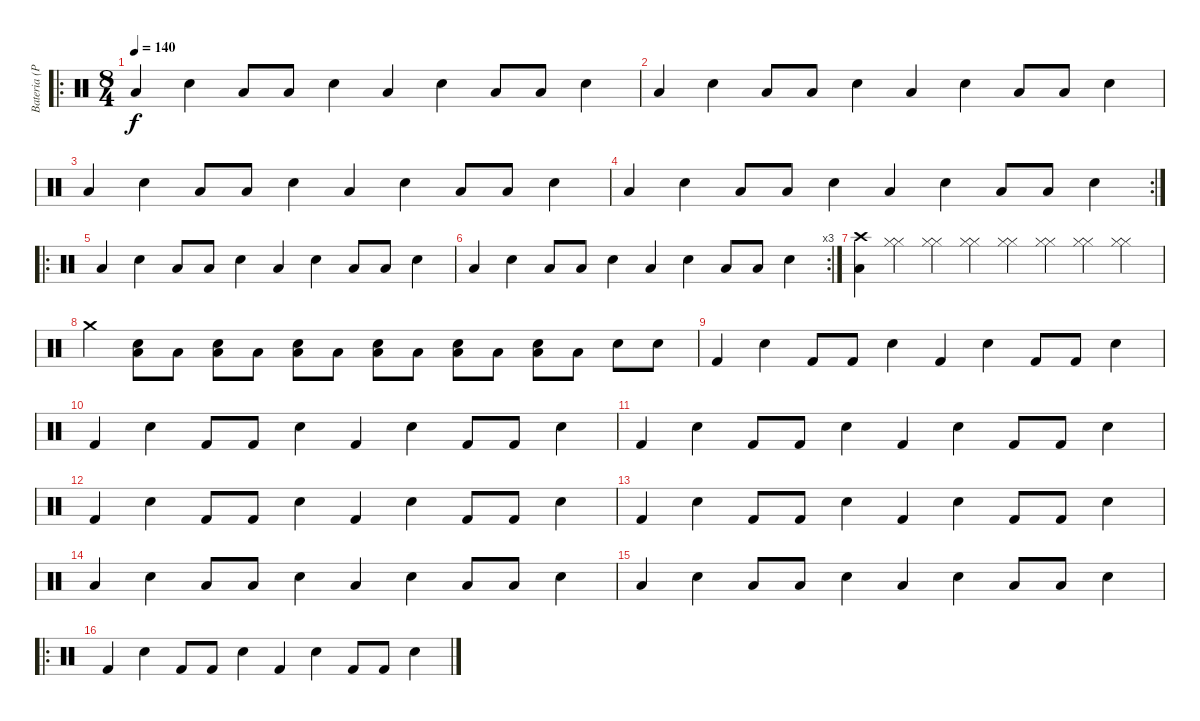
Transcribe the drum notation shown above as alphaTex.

\track ("Bateria (Pelado)" "Bateria (P") {instrument percussion}
\staff {score}
\articulation defaults
\ro
\ts (8 4)
\tempo 140
\clef neutral
\ks c "Low Floor Tom (hit)".4{dy f} "Snare (hit) 2".4 "Low Floor Tom (hit)".8 "Low Floor Tom (hit)".8 "Snare (hit) 2".4 "Low Floor Tom (hit)".4 "Snare (hit) 2".4 "Low Floor Tom (hit)".8 "Low Floor Tom (hit)".8 "Snare (hit) 2".4
|
"Low Floor Tom (hit)".4 "Snare (hit) 2".4 "Low Floor Tom (hit)".8 "Low Floor Tom (hit)".8 "Snare (hit) 2".4 "Low Floor Tom (hit)".4 "Snare (hit) 2".4 "Low Floor Tom (hit)".8 "Low Floor Tom (hit)".8 "Snare (hit) 2".4 |
"Low Floor Tom (hit)".4 "Snare (hit) 2".4 "Low Floor Tom (hit)".8 "Low Floor Tom (hit)".8 "Snare (hit) 2".4 "Low Floor Tom (hit)".4 "Snare (hit) 2".4 "Low Floor Tom (hit)".8 "Low Floor Tom (hit)".8 "Snare (hit) 2".4 |
\rc 2 "Low Floor Tom (hit)".4 "Snare (hit) 2".4 "Low Floor Tom (hit)".8 "Low Floor Tom (hit)".8 "Snare (hit) 2".4 "Low Floor Tom (hit)".4 "Snare (hit) 2".4 "Low Floor Tom (hit)".8 "Low Floor Tom (hit)".8 "Snare (hit) 2".4
|
\ro "Low Floor Tom (hit)".4 "Snare (hit) 2".4 "Low Floor Tom (hit)".8 "Low Floor Tom (hit)".8 "Snare (hit) 2".4 "Low Floor Tom (hit)".4 "Snare (hit) 2".4 "Low Floor Tom (hit)".8 "Low Floor Tom (hit)".8 "Snare (hit) 2".4
|
\rc 3 "Low Floor Tom (hit)".4 "Snare (hit) 2".4 "Low Floor Tom (hit)".8 "Low Floor Tom (hit)".8 "Snare (hit) 2".4 "Low Floor Tom (hit)".4 "Snare (hit) 2".4 "Low Floor Tom (hit)".8 "Low Floor Tom (hit)".8 "Snare (hit) 2".4
|
("Low Floor Tom (hit)" "Crash high (hit)").4 ("Hi-Hat (closed)" "Hi-Hat (closed)").4 ("Hi-Hat (closed)" "Hi-Hat (closed)").4 ("Hi-Hat (closed)" "Hi-Hat (closed)").4 ("Hi-Hat (closed)" "Hi-Hat (closed)").4 ("Hi-Hat (closed)" "Hi-Hat (closed)").4 ("Hi-Hat (closed)" "Hi-Hat (closed)").4 ("Hi-Hat (closed)" "Hi-Hat (closed)").4 |
"Crash medium (hit)".4 ("Low Tom (hit)" "Snare (hit) 2").8 "Low Floor Tom (hit)".8 ("Low Tom (hit)" "Snare (hit) 2").8 "Low Floor Tom (hit)".8 ("Low Tom (hit)" "Snare (hit) 2").8 "Low Floor Tom (hit)".8 ("Low Tom (hit)" "Snare (hit) 2").8 "Low Floor Tom (hit)".8 ("Low Tom (hit)" "Snare (hit) 2").8 "Low Floor Tom (hit)".8 ("Low Tom (hit)" "Snare (hit) 2").8 "Low Floor Tom (hit)".8 "Snare (hit) 2".8 "Snare (hit) 2".8 |
"Kick (hit) 2".4 "Snare (hit) 2".4 "Kick (hit) 2".8 "Kick (hit) 2".8 "Snare (hit) 2".4 "Kick (hit) 2".4 "Snare (hit) 2".4 "Kick (hit) 2".8 "Kick (hit) 2".8 "Snare (hit) 2".4 |
"Kick (hit) 2".4 "Snare (hit) 2".4 "Kick (hit) 2".8 "Kick (hit) 2".8 "Snare (hit) 2".4 "Kick (hit) 2".4 "Snare (hit) 2".4 "Kick (hit) 2".8 "Kick (hit) 2".8 "Snare (hit) 2".4 |
"Kick (hit) 2".4 "Snare (hit) 2".4 "Kick (hit) 2".8 "Kick (hit) 2".8 "Snare (hit) 2".4 "Kick (hit) 2".4 "Snare (hit) 2".4 "Kick (hit) 2".8 "Kick (hit) 2".8 "Snare (hit) 2".4 |
"Kick (hit) 2".4 "Snare (hit) 2".4 "Kick (hit) 2".8 "Kick (hit) 2".8 "Snare (hit) 2".4 "Kick (hit) 2".4 "Snare (hit) 2".4 "Kick (hit) 2".8 "Kick (hit) 2".8 "Snare (hit) 2".4 |
"Kick (hit) 2".4 "Snare (hit) 2".4 "Kick (hit) 2".8 "Kick (hit) 2".8 "Snare (hit) 2".4 "Kick (hit) 2".4 "Snare (hit) 2".4 "Kick (hit) 2".8 "Kick (hit) 2".8 "Snare (hit) 2".4 |
"Low Floor Tom (hit)".4 "Snare (hit) 2".4 "Low Floor Tom (hit)".8 "Low Floor Tom (hit)".8 "Snare (hit) 2".4 "Low Floor Tom (hit)".4 "Snare (hit) 2".4 "Low Floor Tom (hit)".8 "Low Floor Tom (hit)".8 "Snare (hit) 2".4 |
"Low Floor Tom (hit)".4 "Snare (hit) 2".4 "Low Floor Tom (hit)".8 "Low Floor Tom (hit)".8 "Snare (hit) 2".4 "Low Floor Tom (hit)".4 "Snare (hit) 2".4 "Low Floor Tom (hit)".8 "Low Floor Tom (hit)".8 "Snare (hit) 2".4 |
\ro "Kick (hit) 2".4 "Snare (hit) 2".4 "Kick (hit) 2".8 "Kick (hit) 2".8 "Snare (hit) 2".4 "Kick (hit) 2".4 "Snare (hit) 2".4 "Kick (hit) 2".8 "Kick (hit) 2".8 "Snare (hit) 2".4
